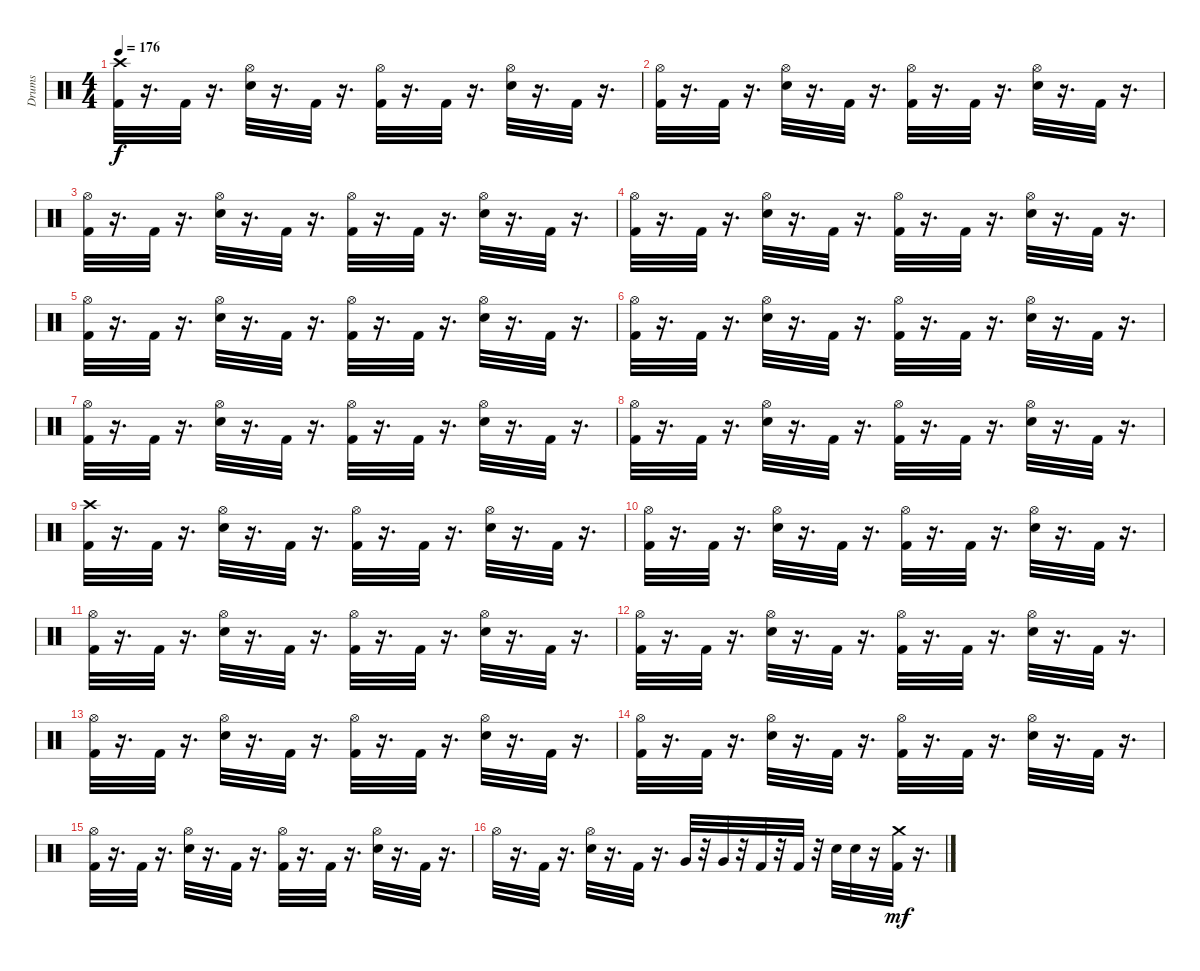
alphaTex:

\track ("Drums" "Drums") {instrument percussion}
\staff {score}
\articulation defaults
\ts (4 4)
\tempo 176
\clef neutral
\ks c
("Crash high (hit)" "Kick (hit) 2").32{dy f} r.16{d} "Kick (hit) 2".32 r.16{d} ("Hi-Hat (open)" "Snare (hit) 2").32 r.16{d} "Kick (hit) 2".32 r.16{d} ("Hi-Hat (open)" "Kick (hit) 2").32 r.16{d} "Kick (hit) 2".32 r.16{d} ("Hi-Hat (open)" "Snare (hit) 2").32 r.16{d} "Kick (hit) 2".32 r.16{d} |
("Hi-Hat (open)" "Kick (hit) 2").32 r.16{d} "Kick (hit) 2".32 r.16{d} ("Snare (hit) 2" "Hi-Hat (open)").32 r.16{d} "Kick (hit) 2".32 r.16{d} ("Kick (hit) 2" "Hi-Hat (open)").32 r.16{d} "Kick (hit) 2".32 r.16{d} ("Snare (hit) 2" "Hi-Hat (open)").32 r.16{d} "Kick (hit) 2".32 r.16{d} |
("Hi-Hat (open)" "Kick (hit) 2").32 r.16{d} "Kick (hit) 2".32 r.16{d} ("Snare (hit) 2" "Hi-Hat (open)").32 r.16{d} "Kick (hit) 2".32 r.16{d} ("Kick (hit) 2" "Hi-Hat (open)").32 r.16{d} "Kick (hit) 2".32 r.16{d} ("Snare (hit) 2" "Hi-Hat (open)").32 r.16{d} "Kick (hit) 2".32 r.16{d} |
("Hi-Hat (open)" "Kick (hit) 2").32 r.16{d} "Kick (hit) 2".32 r.16{d} ("Snare (hit) 2" "Hi-Hat (open)").32 r.16{d} "Kick (hit) 2".32 r.16{d} ("Kick (hit) 2" "Hi-Hat (open)").32 r.16{d} "Kick (hit) 2".32 r.16{d} ("Snare (hit) 2" "Hi-Hat (open)").32 r.16{d} "Kick (hit) 2".32 r.16{d} |
("Hi-Hat (open)" "Kick (hit) 2").32 r.16{d} "Kick (hit) 2".32 r.16{d} ("Snare (hit) 2" "Hi-Hat (open)").32 r.16{d} "Kick (hit) 2".32 r.16{d} ("Kick (hit) 2" "Hi-Hat (open)").32 r.16{d} "Kick (hit) 2".32 r.16{d} ("Snare (hit) 2" "Hi-Hat (open)").32 r.16{d} "Kick (hit) 2".32 r.16{d} |
("Hi-Hat (open)" "Kick (hit) 2").32 r.16{d} "Kick (hit) 2".32 r.16{d} ("Snare (hit) 2" "Hi-Hat (open)").32 r.16{d} "Kick (hit) 2".32 r.16{d} ("Kick (hit) 2" "Hi-Hat (open)").32 r.16{d} "Kick (hit) 2".32 r.16{d} ("Snare (hit) 2" "Hi-Hat (open)").32 r.16{d} "Kick (hit) 2".32 r.16{d} |
("Hi-Hat (open)" "Kick (hit) 2").32 r.16{d} "Kick (hit) 2".32 r.16{d} ("Snare (hit) 2" "Hi-Hat (open)").32 r.16{d} "Kick (hit) 2".32 r.16{d} ("Kick (hit) 2" "Hi-Hat (open)").32 r.16{d} "Kick (hit) 2".32 r.16{d} ("Snare (hit) 2" "Hi-Hat (open)").32 r.16{d} "Kick (hit) 2".32 r.16{d} |
("Hi-Hat (open)" "Kick (hit) 2").32 r.16{d} "Kick (hit) 2".32 r.16{d} ("Snare (hit) 2" "Hi-Hat (open)").32 r.16{d} "Kick (hit) 2".32 r.16{d} ("Kick (hit) 2" "Hi-Hat (open)").32 r.16{d} "Kick (hit) 2".32 r.16{d} ("Snare (hit) 2" "Hi-Hat (open)").32 r.16{d} "Kick (hit) 2".32 r.16{d} |
("Crash high (hit)" "Kick (hit) 2").32 r.16{d} "Kick (hit) 2".32 r.16{d} ("Snare (hit) 2" "Hi-Hat (open)").32 r.16{d} "Kick (hit) 2".32 r.16{d} ("Kick (hit) 2" "Hi-Hat (open)").32 r.16{d} "Kick (hit) 2".32 r.16{d} ("Snare (hit) 2" "Hi-Hat (open)").32 r.16{d} "Kick (hit) 2".32 r.16{d} |
("Hi-Hat (open)" "Kick (hit) 2").32 r.16{d} "Kick (hit) 2".32 r.16{d} ("Snare (hit) 2" "Hi-Hat (open)").32 r.16{d} "Kick (hit) 2".32 r.16{d} ("Kick (hit) 2" "Hi-Hat (open)").32 r.16{d} "Kick (hit) 2".32 r.16{d} ("Snare (hit) 2" "Hi-Hat (open)").32 r.16{d} "Kick (hit) 2".32 r.16{d} |
("Hi-Hat (open)" "Kick (hit) 2").32 r.16{d} "Kick (hit) 2".32 r.16{d} ("Snare (hit) 2" "Hi-Hat (open)").32 r.16{d} "Kick (hit) 2".32 r.16{d} ("Kick (hit) 2" "Hi-Hat (open)").32 r.16{d} "Kick (hit) 2".32 r.16{d} ("Snare (hit) 2" "Hi-Hat (open)").32 r.16{d} "Kick (hit) 2".32 r.16{d} |
("Hi-Hat (open)" "Kick (hit) 2").32 r.16{d} "Kick (hit) 2".32 r.16{d} ("Snare (hit) 2" "Hi-Hat (open)").32 r.16{d} "Kick (hit) 2".32 r.16{d} ("Kick (hit) 2" "Hi-Hat (open)").32 r.16{d} "Kick (hit) 2".32 r.16{d} ("Snare (hit) 2" "Hi-Hat (open)").32 r.16{d} "Kick (hit) 2".32 r.16{d} |
("Hi-Hat (open)" "Kick (hit) 2").32 r.16{d} "Kick (hit) 2".32 r.16{d} ("Snare (hit) 2" "Hi-Hat (open)").32 r.16{d} "Kick (hit) 2".32 r.16{d} ("Kick (hit) 2" "Hi-Hat (open)").32 r.16{d} "Kick (hit) 2".32 r.16{d} ("Snare (hit) 2" "Hi-Hat (open)").32 r.16{d} "Kick (hit) 2".32 r.16{d} |
("Hi-Hat (open)" "Kick (hit) 2").32 r.16{d} "Kick (hit) 2".32 r.16{d} ("Snare (hit) 2" "Hi-Hat (open)").32 r.16{d} "Kick (hit) 2".32 r.16{d} ("Kick (hit) 2" "Hi-Hat (open)").32 r.16{d} "Kick (hit) 2".32 r.16{d} ("Snare (hit) 2" "Hi-Hat (open)").32 r.16{d} "Kick (hit) 2".32 r.16{d} |
("Hi-Hat (open)" "Kick (hit) 2").32 r.16{d} "Kick (hit) 2".32 r.16{d} ("Snare (hit) 2" "Hi-Hat (open)").32 r.16{d} "Kick (hit) 2".32 r.16{d} ("Kick (hit) 2" "Hi-Hat (open)").32 r.16{d} "Kick (hit) 2".32 r.16{d} ("Snare (hit) 2" "Hi-Hat (open)").32 r.16{d} "Kick (hit) 2".32 r.16{d} |
"Hi-Hat (open)".32 r.16{d} "Kick (hit) 2".32 r.16{d} ("Snare (hit) 2" "Hi-Hat (open)").32 r.16{d} "Kick (hit) 2".32 r.16{d} "Very Low Tom (hit)".32 r.32 "Very Low Tom (hit)".32 r.32 "Kick (hit) 2".32 r.32 "Kick (hit) 2".32 r.32 "Snare (hit) 2".32 "Snare (hit) 2".32 r.16 ("Crash medium (hit)" "Kick (hit) 2").32{dy mf} r.16{d}
